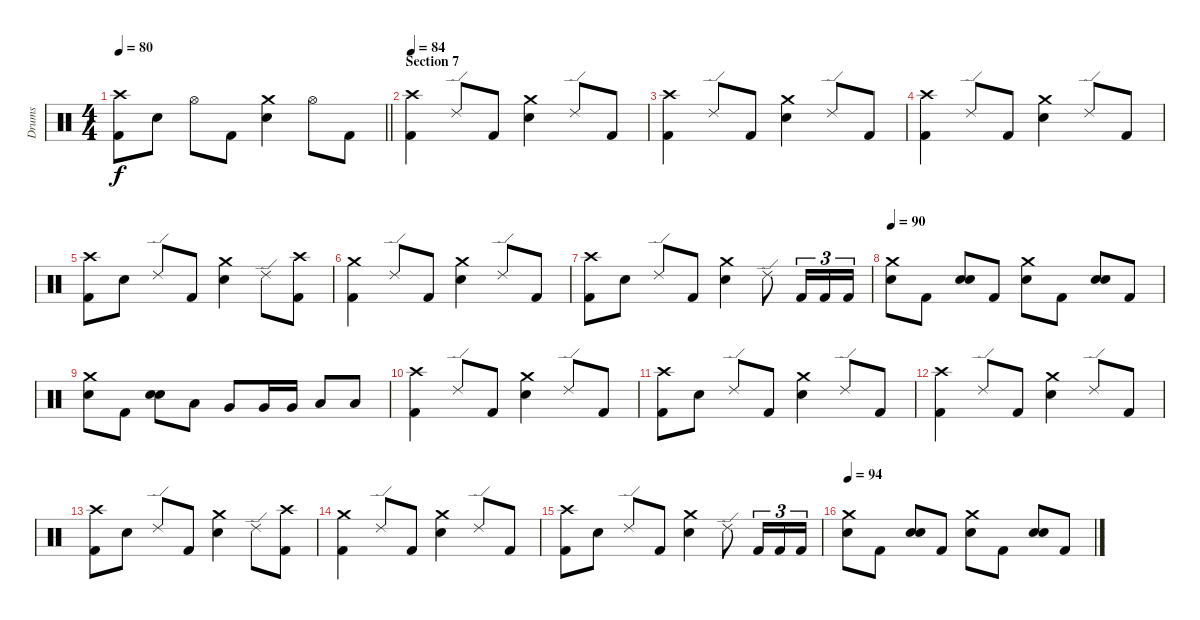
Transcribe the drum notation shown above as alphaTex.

\track ("Drums" "Drums") {instrument percussion}
\staff {score}
\articulation defaults
\ts (4 4)
\tempo 80
\clef neutral
\barLineRight lightlight
\ks c
("Crash high (hit)" "Kick (hit) 2").8{dy f} "Electric Snare (hit)".8 "Hi-Hat (open)".8 "Kick (hit) 2".8 ("Crash medium (hit)" "Electric Snare (hit)").4 "Hi-Hat (open)".8 "Kick (hit) 2".8 |
\section ("" "Section 7")
\tempo 84
("Crash high (hit)" "Kick (hit) 2").4 "Ride (edge) 2".8 "Kick (hit) 2".8 ("Crash medium (hit)" "Electric Snare (hit)").4 "Ride (edge) 2".8 "Kick (hit) 2".8 |
("Crash high (hit)" "Kick (hit) 2").4 "Ride (edge) 2".8 "Kick (hit) 2".8 ("Crash medium (hit)" "Electric Snare (hit)").4 "Ride (edge) 2".8 "Kick (hit) 2".8 |
("Crash high (hit)" "Kick (hit) 2").4 "Ride (edge) 2".8 "Kick (hit) 2".8 ("Crash medium (hit)" "Electric Snare (hit)").4 "Ride (edge) 2".8 "Kick (hit) 2".8 |
("Crash high (hit)" "Kick (hit) 2").8 "Electric Snare (hit)".8 "Ride (edge) 2".8 "Kick (hit) 2".8 ("Crash medium (hit)" "Electric Snare (hit)").4 "Ride (edge) 2".8 ("Crash high (hit)" "Kick (hit) 2").8 |
("Crash medium (hit)" "Kick (hit) 2").4 "Ride (edge) 2".8 "Kick (hit) 2".8 ("Crash medium (hit)" "Electric Snare (hit)").4 "Ride (edge) 2".8 "Kick (hit) 2".8 |
("Crash high (hit)" "Kick (hit) 2").8 "Electric Snare (hit)".8 "Ride (edge) 2".8 "Kick (hit) 2".8 ("Crash medium (hit)" "Electric Snare (hit)").4 "Ride (edge) 2".8 "Kick (hit) 2".16{tu (3 2)} "Kick (hit) 2".16{tu (3 2)} "Kick (hit) 2".16{tu (3 2)} |
\tempo 90
("Crash medium (hit)" "Electric Snare (hit)").8 "Kick (hit) 2".8 ("Electric Snare (hit)" "Electric Snare (hit)").8{bu 60} "Kick (hit) 2".8 ("Crash medium (hit)" "Electric Snare (hit)").8 "Kick (hit) 2".8 ("Electric Snare (hit)" "Electric Snare (hit)").8{bu 60} "Kick (hit) 2".8 |
("Crash medium (hit)" "Electric Snare (hit)").8 "Kick (hit) 2".8 ("Electric Snare (hit)" "Electric Snare (hit)").8{bu 60} "Low Tom (hit)".8 "Very Low Tom (hit)".8 "Very Low Tom (hit)".16 "Very Low Tom (hit)".16 "Low Floor Tom (hit)".8 "Low Tom (hit)".8 |
("Crash high (hit)" "Kick (hit) 2").4 "Ride (edge) 2".8 "Kick (hit) 2".8 ("Crash medium (hit)" "Electric Snare (hit)").4 "Ride (edge) 2".8 "Kick (hit) 2".8 |
("Crash high (hit)" "Kick (hit) 2").8 "Electric Snare (hit)".8 "Ride (edge) 2".8 "Kick (hit) 2".8 ("Crash medium (hit)" "Electric Snare (hit)").4 "Ride (edge) 2".8 "Kick (hit) 2".8 |
("Crash high (hit)" "Kick (hit) 2").4 "Ride (edge) 2".8 "Kick (hit) 2".8 ("Crash medium (hit)" "Electric Snare (hit)").4 "Ride (edge) 2".8 "Kick (hit) 2".8 |
("Crash high (hit)" "Kick (hit) 2").8 "Electric Snare (hit)".8 "Ride (edge) 2".8 "Kick (hit) 2".8 ("Crash medium (hit)" "Electric Snare (hit)").4 "Ride (edge) 2".8 ("Crash high (hit)" "Kick (hit) 2").8 |
("Crash medium (hit)" "Kick (hit) 2").4 "Ride (edge) 2".8 "Kick (hit) 2".8 ("Crash medium (hit)" "Electric Snare (hit)").4 "Ride (edge) 2".8 "Kick (hit) 2".8 |
("Crash high (hit)" "Kick (hit) 2").8 "Electric Snare (hit)".8 "Ride (edge) 2".8 "Kick (hit) 2".8 ("Crash medium (hit)" "Electric Snare (hit)").4 "Ride (edge) 2".8 "Kick (hit) 2".16{tu (3 2)} "Kick (hit) 2".16{tu (3 2)} "Kick (hit) 2".16{tu (3 2)} |
\tempo 94
("Crash medium (hit)" "Electric Snare (hit)").8 "Kick (hit) 2".8 ("Electric Snare (hit)" "Electric Snare (hit)").8{bu 60} "Kick (hit) 2".8 ("Crash medium (hit)" "Electric Snare (hit)").8 "Kick (hit) 2".8 ("Electric Snare (hit)" "Electric Snare (hit)").8{bu 60} "Kick (hit) 2".8
